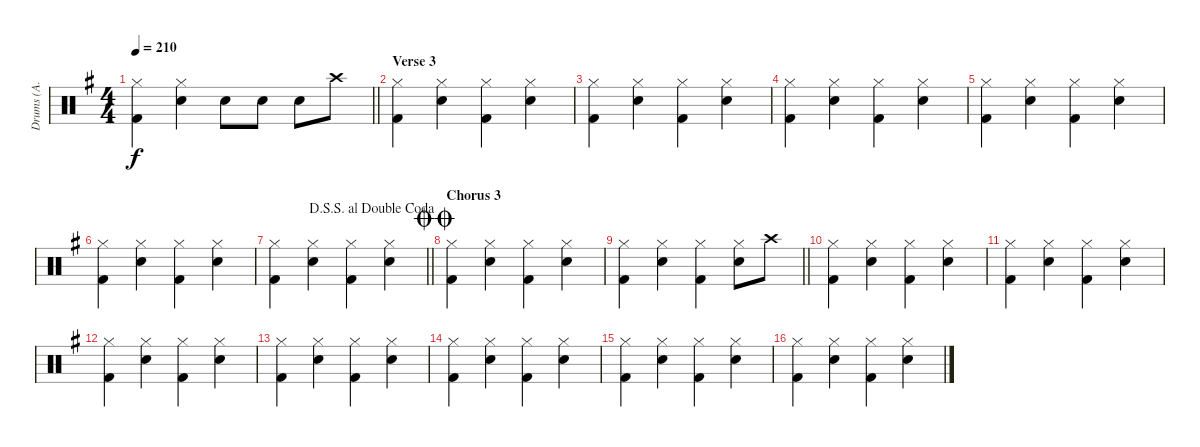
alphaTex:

\track ("Drums (А. Манякин)" "Drums (А. ") {instrument percussion}
\staff {score}
\articulation defaults
\ts (4 4)
\tempo 210
\clef neutral
\barLineRight lightlight
\ks g
("Hi-Hat (closed)" "Kick (hit) 2").4{dy f} ("Hi-Hat (closed)" "Snare (hit) 2").4 "Snare (hit) 2".8 "Snare (hit) 2".8 "Snare (hit) 2".8 "Crash high (hit)".8 |
\section ("" "Verse 3")
("Hi-Hat (closed)" "Kick (hit) 2").4 ("Hi-Hat (closed)" "Snare (hit) 2").4 ("Hi-Hat (closed)" "Kick (hit) 2").4 ("Hi-Hat (closed)" "Snare (hit) 2").4 |
("Hi-Hat (closed)" "Kick (hit) 2").4 ("Hi-Hat (closed)" "Snare (hit) 2").4 ("Hi-Hat (closed)" "Kick (hit) 2").4 ("Hi-Hat (closed)" "Snare (hit) 2").4 |
("Hi-Hat (closed)" "Kick (hit) 2").4 ("Hi-Hat (closed)" "Snare (hit) 2").4 ("Hi-Hat (closed)" "Kick (hit) 2").4 ("Hi-Hat (closed)" "Snare (hit) 2").4 |
("Hi-Hat (closed)" "Kick (hit) 2").4 ("Hi-Hat (closed)" "Snare (hit) 2").4 ("Hi-Hat (closed)" "Kick (hit) 2").4 ("Hi-Hat (closed)" "Snare (hit) 2").4 |
("Hi-Hat (closed)" "Kick (hit) 2").4 ("Hi-Hat (closed)" "Snare (hit) 2").4 ("Hi-Hat (closed)" "Kick (hit) 2").4 ("Hi-Hat (closed)" "Snare (hit) 2").4 |
\jump dalsegnosegnoaldoublecoda
\barLineRight lightlight
("Hi-Hat (closed)" "Kick (hit) 2").4 ("Hi-Hat (closed)" "Snare (hit) 2").4 ("Hi-Hat (closed)" "Kick (hit) 2").4 ("Hi-Hat (closed)" "Snare (hit) 2").4 |
\section ("" "Chorus 3")
\jump doublecoda
("Hi-Hat (closed)" "Kick (hit) 2").4 ("Hi-Hat (closed)" "Snare (hit) 2").4 ("Hi-Hat (closed)" "Kick (hit) 2").4 ("Hi-Hat (closed)" "Snare (hit) 2").4 |
\barLineRight lightlight
("Hi-Hat (closed)" "Kick (hit) 2").4 ("Hi-Hat (closed)" "Snare (hit) 2").4 ("Hi-Hat (closed)" "Kick (hit) 2").4 ("Hi-Hat (closed)" "Snare (hit) 2").8 "Crash high (hit)".8 |
("Hi-Hat (closed)" "Kick (hit) 2").4 ("Hi-Hat (closed)" "Snare (hit) 2").4 ("Hi-Hat (closed)" "Kick (hit) 2").4 ("Hi-Hat (closed)" "Snare (hit) 2").4 |
("Hi-Hat (closed)" "Kick (hit) 2").4 ("Hi-Hat (closed)" "Snare (hit) 2").4 ("Hi-Hat (closed)" "Kick (hit) 2").4 ("Hi-Hat (closed)" "Snare (hit) 2").4 |
("Hi-Hat (closed)" "Kick (hit) 2").4 ("Hi-Hat (closed)" "Snare (hit) 2").4 ("Hi-Hat (closed)" "Kick (hit) 2").4 ("Hi-Hat (closed)" "Snare (hit) 2").4 |
("Hi-Hat (closed)" "Kick (hit) 2").4 ("Hi-Hat (closed)" "Snare (hit) 2").4 ("Hi-Hat (closed)" "Kick (hit) 2").4 ("Hi-Hat (closed)" "Snare (hit) 2").4 |
("Hi-Hat (closed)" "Kick (hit) 2").4 ("Hi-Hat (closed)" "Snare (hit) 2").4 ("Hi-Hat (closed)" "Kick (hit) 2").4 ("Hi-Hat (closed)" "Snare (hit) 2").4 |
("Hi-Hat (closed)" "Kick (hit) 2").4 ("Hi-Hat (closed)" "Snare (hit) 2").4 ("Hi-Hat (closed)" "Kick (hit) 2").4 ("Hi-Hat (closed)" "Snare (hit) 2").4 |
("Hi-Hat (closed)" "Kick (hit) 2").4 ("Hi-Hat (closed)" "Snare (hit) 2").4 ("Hi-Hat (closed)" "Kick (hit) 2").4 ("Hi-Hat (closed)" "Snare (hit) 2").4
